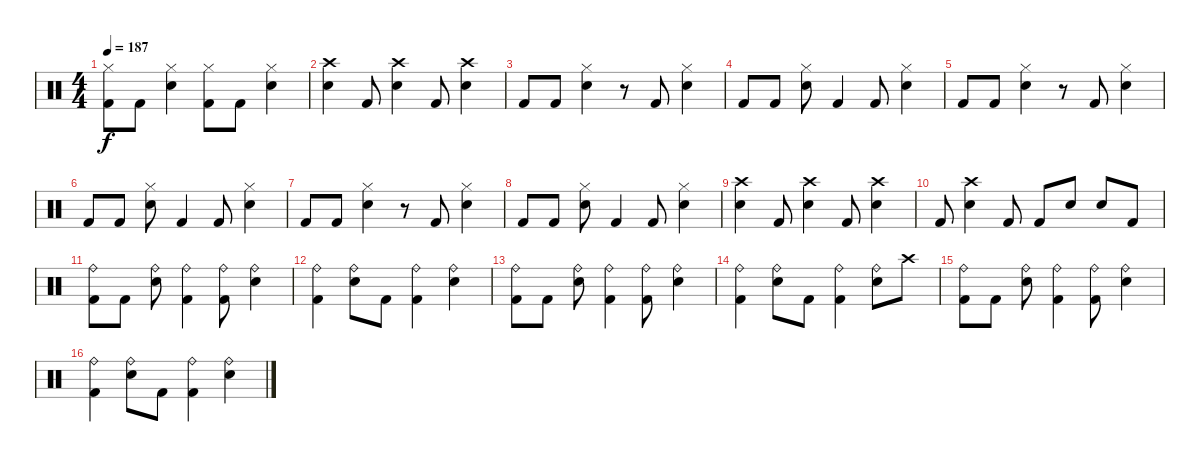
\track "" {instrument percussion}
\staff {score}
\articulation defaults
\ts (4 4)
\tempo 187
\clef neutral
\ks c
("Hi-Hat (closed)" "Kick (hit) 2").8{dy f} "Kick (hit) 2".8 ("Hi-Hat (closed)" "Electric Snare (hit)").4 ("Hi-Hat (closed)" "Kick (hit) 2").8 "Kick (hit) 2".8 ("Hi-Hat (closed)" "Electric Snare (hit)").4 |
("Crash high (hit)" "Electric Snare (hit)").4 "Kick (hit) 2".8 ("Crash high (hit)" "Electric Snare (hit)").4 "Kick (hit) 2".8 ("Crash high (hit)" "Electric Snare (hit)").4 |
"Kick (hit) 2".8 "Kick (hit) 2".8 ("Hi-Hat (closed)" "Electric Snare (hit)").4 r.8 "Kick (hit) 2".8 ("Hi-Hat (closed)" "Electric Snare (hit)").4 |
"Kick (hit) 2".8 "Kick (hit) 2".8 ("Hi-Hat (closed)" "Electric Snare (hit)").8 "Kick (hit) 2".4 "Kick (hit) 2".8 ("Hi-Hat (closed)" "Electric Snare (hit)").4 |
"Kick (hit) 2".8 "Kick (hit) 2".8 ("Hi-Hat (closed)" "Electric Snare (hit)").4 r.8 "Kick (hit) 2".8 ("Hi-Hat (closed)" "Electric Snare (hit)").4 |
"Kick (hit) 2".8 "Kick (hit) 2".8 ("Hi-Hat (closed)" "Electric Snare (hit)").8 "Kick (hit) 2".4 "Kick (hit) 2".8 ("Hi-Hat (closed)" "Electric Snare (hit)").4 |
"Kick (hit) 2".8 "Kick (hit) 2".8 ("Hi-Hat (closed)" "Electric Snare (hit)").4 r.8 "Kick (hit) 2".8 ("Hi-Hat (closed)" "Electric Snare (hit)").4 |
"Kick (hit) 2".8 "Kick (hit) 2".8 ("Hi-Hat (closed)" "Electric Snare (hit)").8 "Kick (hit) 2".4 "Kick (hit) 2".8 ("Hi-Hat (closed)" "Electric Snare (hit)").4 |
("Crash high (hit)" "Electric Snare (hit)").4 "Kick (hit) 2".8 ("Crash high (hit)" "Electric Snare (hit)").4 "Kick (hit) 2".8 ("Crash high (hit)" "Electric Snare (hit)").4 |
"Kick (hit) 2".8 ("Crash high (hit)" "Electric Snare (hit)").4 "Kick (hit) 2".8 "Kick (hit) 2".8 "Electric Snare (hit)".8 "Electric Snare (hit)".8 "Kick (hit) 2".8 |
("Ride (bell)" "Kick (hit) 2").8 "Kick (hit) 2".8 ("Ride (bell)" "Electric Snare (hit)").8 ("Ride (bell)" "Kick (hit) 2").4 ("Ride (bell)" "Kick (hit) 2").8 ("Ride (bell)" "Electric Snare (hit)").4 |
("Ride (bell)" "Kick (hit) 2").4 ("Ride (bell)" "Electric Snare (hit)").8 "Kick (hit) 2".8 ("Ride (bell)" "Kick (hit) 2").4 ("Ride (bell)" "Electric Snare (hit)").4 |
("Ride (bell)" "Kick (hit) 2").8 "Kick (hit) 2".8 ("Ride (bell)" "Electric Snare (hit)").8 ("Ride (bell)" "Kick (hit) 2").4 ("Ride (bell)" "Kick (hit) 2").8 ("Ride (bell)" "Electric Snare (hit)").4 |
("Ride (bell)" "Kick (hit) 2").4 ("Ride (bell)" "Electric Snare (hit)").8 "Kick (hit) 2".8 ("Ride (bell)" "Kick (hit) 2").4 ("Ride (bell)" "Electric Snare (hit)").8 "Crash high (hit)".8 |
("Ride (bell)" "Kick (hit) 2").8 "Kick (hit) 2".8 ("Ride (bell)" "Electric Snare (hit)").8 ("Ride (bell)" "Kick (hit) 2").4 ("Ride (bell)" "Kick (hit) 2").8 ("Ride (bell)" "Electric Snare (hit)").4 |
("Ride (bell)" "Kick (hit) 2").4 ("Ride (bell)" "Electric Snare (hit)").8 "Kick (hit) 2".8 ("Ride (bell)" "Kick (hit) 2").4 ("Ride (bell)" "Electric Snare (hit)").4
